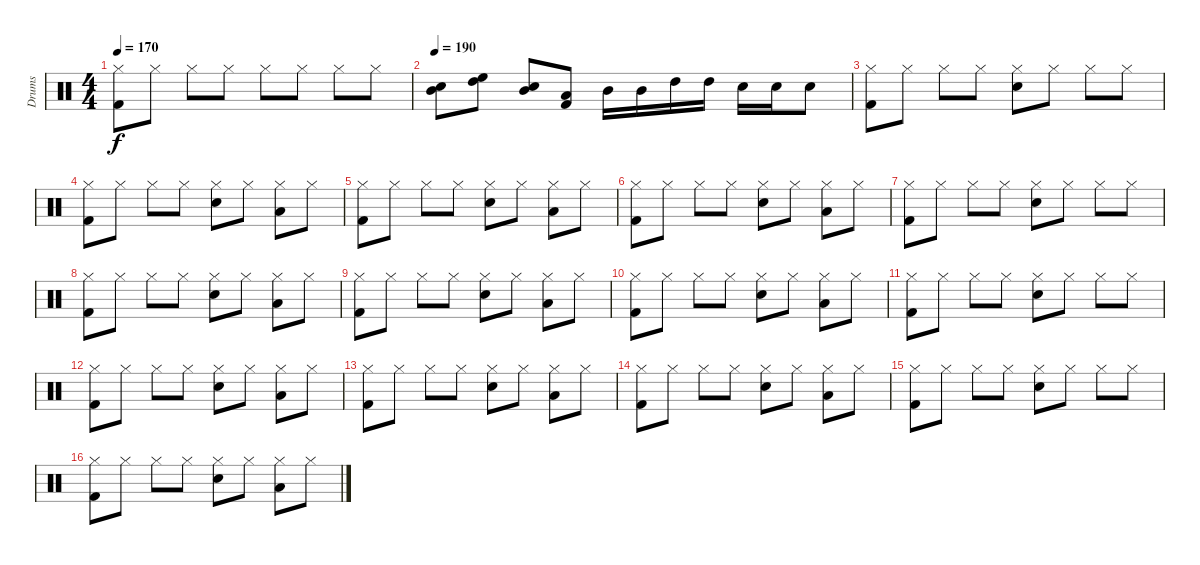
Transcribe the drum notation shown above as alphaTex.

\track ("Drums" "Drums") {instrument percussion}
\staff {score}
\articulation defaults
\ts (4 4)
\tempo 170
\clef neutral
\ks c
("Kick (hit) 2" "Hi-Hat (closed)").8{dy f} "Hi-Hat (closed)".8 "Hi-Hat (closed)".8 "Hi-Hat (closed)".8 "Hi-Hat (closed)".8 "Hi-Hat (closed)".8 "Hi-Hat (closed)".8 "Hi-Hat (closed)".8 |
\tempo 190
("Snare (hit) 2" "Mid Tom (hit)").8{balance 0} ("High Tom (hit)" "High Floor Tom (hit)").8{balance 16} ("Snare (hit) 2" "Mid Tom (hit)").8 ("Low Tom (hit)" "Kick (hit) 2").8 "Mid Tom (hit)".16 "Mid Tom (hit)".16 "High Tom (hit)".16 "High Tom (hit)".16 "Snare (hit) 2".16 "Snare (hit) 2".16 "Snare (hit) 2".8 |
("Kick (hit) 2" "Hi-Hat (closed)").8{balance 8} "Hi-Hat (closed)".8 "Hi-Hat (closed)".8 "Hi-Hat (closed)".8 ("Snare (hit) 2" "Hi-Hat (closed)").8 "Hi-Hat (closed)".8 "Hi-Hat (closed)".8 "Hi-Hat (closed)".8 |
("Kick (hit) 2" "Hi-Hat (closed)").8 "Hi-Hat (closed)".8 "Hi-Hat (closed)".8 "Hi-Hat (closed)".8 ("Snare (hit) 2" "Hi-Hat (closed)").8 "Hi-Hat (closed)".8 ("Low Tom (hit)" "Hi-Hat (closed)").8 "Hi-Hat (closed)".8 |
("Kick (hit) 2" "Hi-Hat (closed)").8 "Hi-Hat (closed)".8 "Hi-Hat (closed)".8 "Hi-Hat (closed)".8 ("Snare (hit) 2" "Hi-Hat (closed)").8 "Hi-Hat (closed)".8 ("Low Tom (hit)" "Hi-Hat (closed)").8 "Hi-Hat (closed)".8 |
("Kick (hit) 2" "Hi-Hat (closed)").8 "Hi-Hat (closed)".8 "Hi-Hat (closed)".8 "Hi-Hat (closed)".8 ("Snare (hit) 2" "Hi-Hat (closed)").8 "Hi-Hat (closed)".8 ("Low Tom (hit)" "Hi-Hat (closed)").8 "Hi-Hat (closed)".8 |
("Kick (hit) 2" "Hi-Hat (closed)").8 "Hi-Hat (closed)".8 "Hi-Hat (closed)".8 "Hi-Hat (closed)".8 ("Snare (hit) 2" "Hi-Hat (closed)").8 "Hi-Hat (closed)".8 "Hi-Hat (closed)".8 "Hi-Hat (closed)".8 |
("Kick (hit) 2" "Hi-Hat (closed)").8 "Hi-Hat (closed)".8 "Hi-Hat (closed)".8 "Hi-Hat (closed)".8 ("Snare (hit) 2" "Hi-Hat (closed)").8 "Hi-Hat (closed)".8 ("Low Tom (hit)" "Hi-Hat (closed)").8 "Hi-Hat (closed)".8 |
("Kick (hit) 2" "Hi-Hat (closed)").8 "Hi-Hat (closed)".8 "Hi-Hat (closed)".8 "Hi-Hat (closed)".8 ("Snare (hit) 2" "Hi-Hat (closed)").8 "Hi-Hat (closed)".8 ("Low Tom (hit)" "Hi-Hat (closed)").8 "Hi-Hat (closed)".8 |
("Kick (hit) 2" "Hi-Hat (closed)").8 "Hi-Hat (closed)".8 "Hi-Hat (closed)".8 "Hi-Hat (closed)".8 ("Snare (hit) 2" "Hi-Hat (closed)").8 "Hi-Hat (closed)".8 ("Low Tom (hit)" "Hi-Hat (closed)").8 "Hi-Hat (closed)".8 |
("Kick (hit) 2" "Hi-Hat (closed)").8 "Hi-Hat (closed)".8 "Hi-Hat (closed)".8 "Hi-Hat (closed)".8 ("Snare (hit) 2" "Hi-Hat (closed)").8 "Hi-Hat (closed)".8 "Hi-Hat (closed)".8 "Hi-Hat (closed)".8 |
("Kick (hit) 2" "Hi-Hat (closed)").8 "Hi-Hat (closed)".8 "Hi-Hat (closed)".8 "Hi-Hat (closed)".8 ("Snare (hit) 2" "Hi-Hat (closed)").8 "Hi-Hat (closed)".8 ("Low Tom (hit)" "Hi-Hat (closed)").8 "Hi-Hat (closed)".8 |
("Kick (hit) 2" "Hi-Hat (closed)").8 "Hi-Hat (closed)".8 "Hi-Hat (closed)".8 "Hi-Hat (closed)".8 ("Snare (hit) 2" "Hi-Hat (closed)").8 "Hi-Hat (closed)".8 ("Low Tom (hit)" "Hi-Hat (closed)").8 "Hi-Hat (closed)".8 |
("Kick (hit) 2" "Hi-Hat (closed)").8 "Hi-Hat (closed)".8 "Hi-Hat (closed)".8 "Hi-Hat (closed)".8 ("Snare (hit) 2" "Hi-Hat (closed)").8 "Hi-Hat (closed)".8 ("Low Tom (hit)" "Hi-Hat (closed)").8 "Hi-Hat (closed)".8 |
("Kick (hit) 2" "Hi-Hat (closed)").8 "Hi-Hat (closed)".8 "Hi-Hat (closed)".8 "Hi-Hat (closed)".8 ("Snare (hit) 2" "Hi-Hat (closed)").8 "Hi-Hat (closed)".8 "Hi-Hat (closed)".8 "Hi-Hat (closed)".8 |
("Kick (hit) 2" "Hi-Hat (closed)").8 "Hi-Hat (closed)".8 "Hi-Hat (closed)".8 "Hi-Hat (closed)".8 ("Snare (hit) 2" "Hi-Hat (closed)").8 "Hi-Hat (closed)".8 ("Low Tom (hit)" "Hi-Hat (closed)").8 "Hi-Hat (closed)".8
